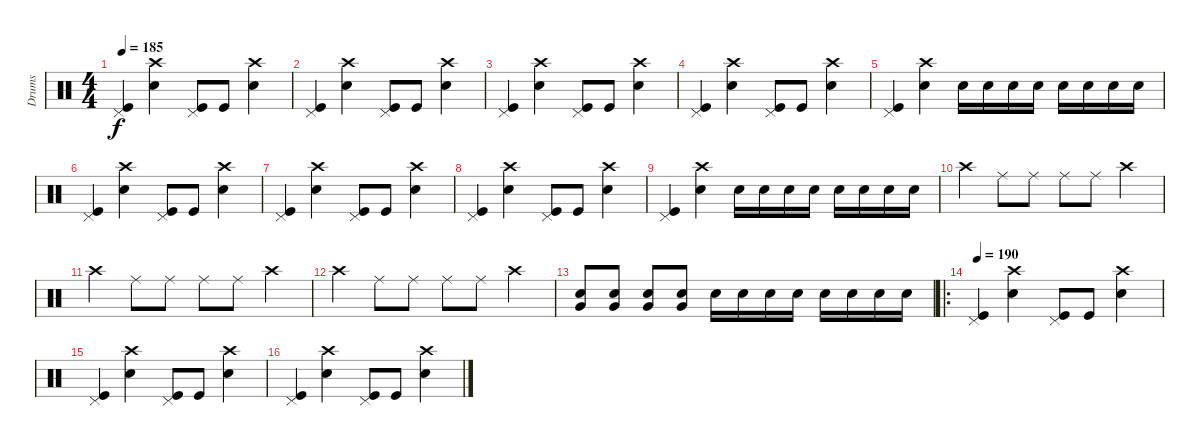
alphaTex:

\track ("Drums" "Drums") {instrument percussion}
\staff {score}
\articulation defaults
\ts (4 4)
\tempo 185
\clef neutral
\ks c
("Pedal Hi-Hat (hit)" "Kick (hit)").4{dy f} ("Crash high (hit)" "Electric Snare (hit)").4 ("Pedal Hi-Hat (hit)" "Kick (hit)").8 "Kick (hit)".8 ("Crash high (hit)" "Electric Snare (hit)").4 |
("Pedal Hi-Hat (hit)" "Kick (hit)").4 ("Crash high (hit)" "Electric Snare (hit)").4 ("Pedal Hi-Hat (hit)" "Kick (hit)").8 "Kick (hit)".8 ("Crash high (hit)" "Electric Snare (hit)").4 |
("Pedal Hi-Hat (hit)" "Kick (hit)").4 ("Crash high (hit)" "Electric Snare (hit)").4 ("Pedal Hi-Hat (hit)" "Kick (hit)").8 "Kick (hit)".8 ("Crash high (hit)" "Electric Snare (hit)").4 |
("Pedal Hi-Hat (hit)" "Kick (hit)").4 ("Crash high (hit)" "Electric Snare (hit)").4 ("Pedal Hi-Hat (hit)" "Kick (hit)").8 "Kick (hit)".8 ("Crash high (hit)" "Electric Snare (hit)").4 |
("Pedal Hi-Hat (hit)" "Kick (hit)").4 ("Crash high (hit)" "Electric Snare (hit)").4 "Electric Snare (hit)".16 "Electric Snare (hit)".16 "Electric Snare (hit)".16 "Electric Snare (hit)".16 "Electric Snare (hit)".16 "Electric Snare (hit)".16 "Electric Snare (hit)".16 "Electric Snare (hit)".16 |
("Pedal Hi-Hat (hit)" "Kick (hit)").4 ("Crash high (hit)" "Electric Snare (hit)").4 ("Pedal Hi-Hat (hit)" "Kick (hit)").8 "Kick (hit)".8 ("Crash high (hit)" "Electric Snare (hit)").4 |
("Pedal Hi-Hat (hit)" "Kick (hit)").4 ("Crash high (hit)" "Electric Snare (hit)").4 ("Pedal Hi-Hat (hit)" "Kick (hit)").8 "Kick (hit)".8 ("Crash high (hit)" "Electric Snare (hit)").4 |
("Pedal Hi-Hat (hit)" "Kick (hit)").4 ("Crash high (hit)" "Electric Snare (hit)").4 ("Pedal Hi-Hat (hit)" "Kick (hit)").8 "Kick (hit)".8 ("Crash high (hit)" "Electric Snare (hit)").4 |
("Pedal Hi-Hat (hit)" "Kick (hit)").4 ("Crash high (hit)" "Electric Snare (hit)").4 "Electric Snare (hit)".16 "Electric Snare (hit)".16 "Electric Snare (hit)".16 "Electric Snare (hit)".16 "Electric Snare (hit)".16 "Electric Snare (hit)".16 "Electric Snare (hit)".16 "Electric Snare (hit)".16 |
"Crash high (hit)".4 "Ride (middle)".8 "Ride (middle)".8 "Ride (middle)".8 "Ride (middle)".8 "Crash high (hit)".4 |
"Crash high (hit)".4 "Ride (middle)".8 "Ride (middle)".8 "Ride (middle)".8 "Ride (middle)".8 "Crash high (hit)".4 |
"Crash high (hit)".4 "Ride (middle)".8 "Ride (middle)".8 "Ride (middle)".8 "Ride (middle)".8 "Crash high (hit)".4 |
("Very Low Tom (hit)" "Electric Snare (hit)").8 ("Very Low Tom (hit)" "Electric Snare (hit)").8 ("Very Low Tom (hit)" "Electric Snare (hit)").8 ("Very Low Tom (hit)" "Electric Snare (hit)").8 "Electric Snare (hit)".16 "Electric Snare (hit)".16 "Electric Snare (hit)".16 "Electric Snare (hit)".16 "Electric Snare (hit)".16 "Electric Snare (hit)".16 "Electric Snare (hit)".16 "Electric Snare (hit)".16 |
\ro
\tempo 190
("Pedal Hi-Hat (hit)" "Kick (hit)").4 ("Crash high (hit)" "Electric Snare (hit)").4 ("Pedal Hi-Hat (hit)" "Kick (hit)").8 "Kick (hit)".8 ("Crash high (hit)" "Electric Snare (hit)").4 |
("Pedal Hi-Hat (hit)" "Kick (hit)").4 ("Crash high (hit)" "Electric Snare (hit)").4 ("Pedal Hi-Hat (hit)" "Kick (hit)").8 "Kick (hit)".8 ("Crash high (hit)" "Electric Snare (hit)").4 |
("Pedal Hi-Hat (hit)" "Kick (hit)").4 ("Crash high (hit)" "Electric Snare (hit)").4 ("Pedal Hi-Hat (hit)" "Kick (hit)").8 "Kick (hit)".8 ("Crash high (hit)" "Electric Snare (hit)").4
